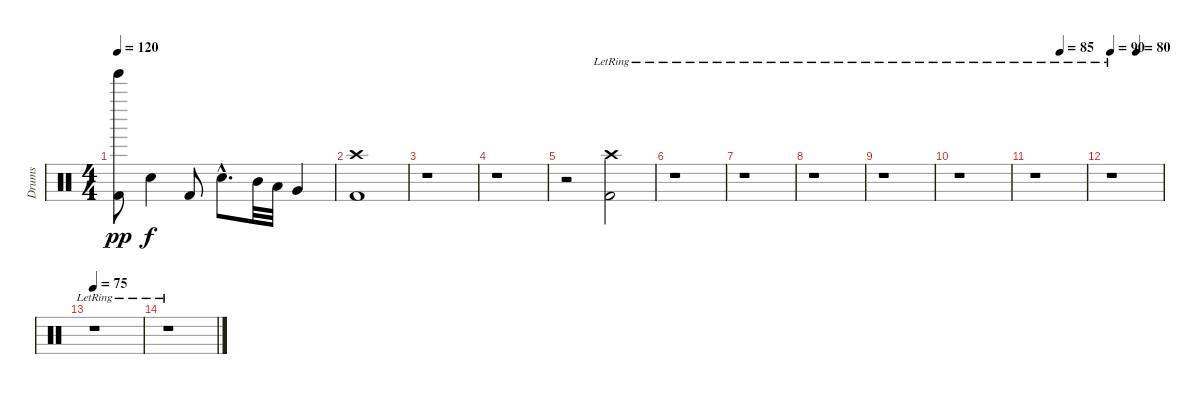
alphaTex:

\track ("Drums" "Drums") {instrument percussion}
\staff {score}
\articulation defaults
\ts (4 4)
\tempo 120
\clef neutral
\ks c
("Tinkle Bell (hit)" "Kick (hit) 2").8{dy pp} "Electric Snare (hit)".4{dy f} "Kick (hit) 2".8 "Electric Snare (hit)"{hac}.8{d} "Mid Tom (hit)".32 "Low Tom (hit)".32 "Very Low Tom (hit)".4 |
("Crash high (hit)" "Kick (hit) 2").1 |
r.1 |
r.1 |
r.2 ("Crash high (hit)"{lr} "Kick (hit) 2").2 |
r.1 |
r.1 |
r.1 |
r.1 |
r.1 |
\tempo (85 0.5)
r.1 |
\tempo 90
\tempo (80 0.5)
r.1 |
\tempo 65
\tempo 75
r.1 |
r.1
